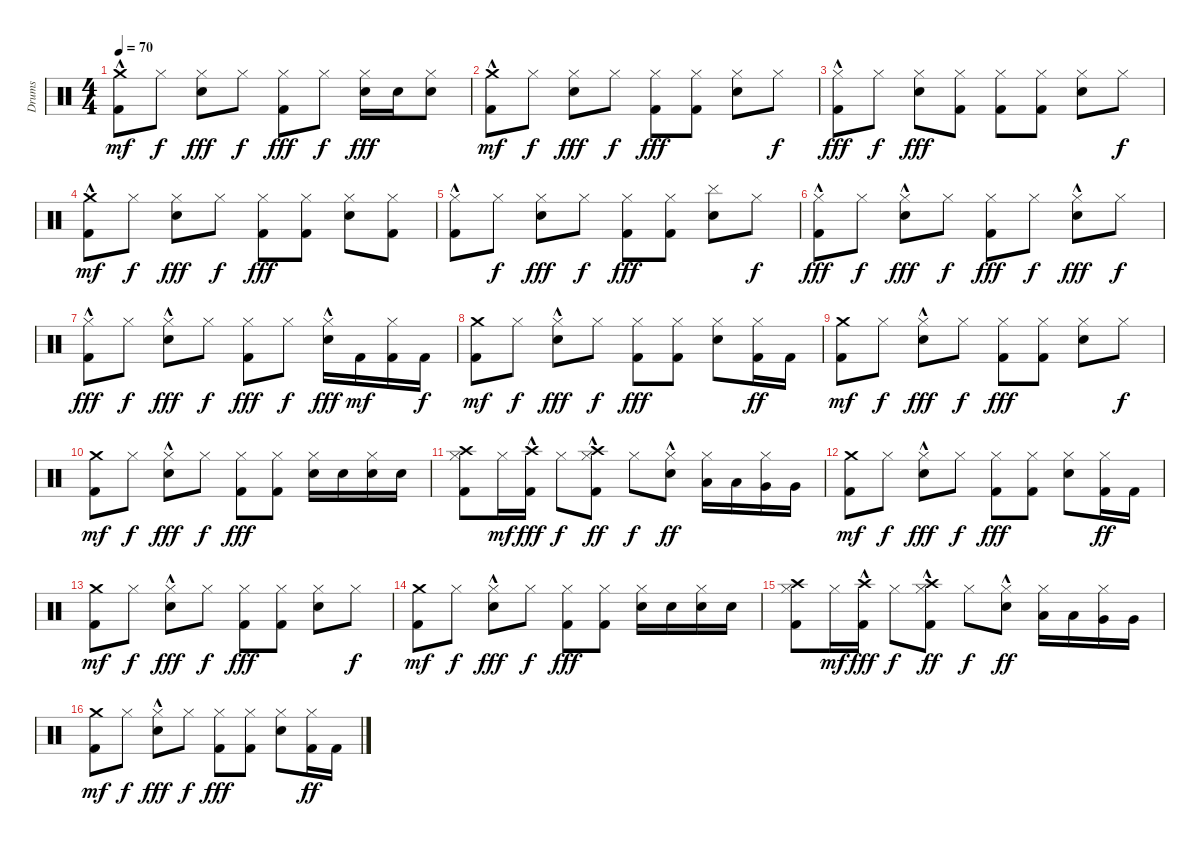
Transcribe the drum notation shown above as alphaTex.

\track ("Drums" "Drums") {instrument percussion}
\staff {score}
\articulation defaults
\ts (4 4)
\tempo 70
\clef neutral
\ks c
("Kick (hit) 2"{hac} "Crash medium (hit)").8{dy mf} "Hi-Hat (closed)".8{dy f} ("Snare (hit) 2" "Hi-Hat (closed)").8{dy fff} "Hi-Hat (closed)".8{dy f} ("Kick (hit) 2" "Hi-Hat (closed)").8{dy fff} "Hi-Hat (closed)".8{dy f} ("Snare (hit) 2" "Hi-Hat (closed)").16{dy fff} "Snare (hit) 2".16 ("Snare (hit) 2" "Hi-Hat (closed)").8 |
("Kick (hit) 2"{hac} "Crash medium (hit)").8{dy mf} "Hi-Hat (closed)".8{dy f} ("Snare (hit) 2" "Hi-Hat (closed)").8{dy fff} "Hi-Hat (closed)".8{dy f} ("Kick (hit) 2" "Hi-Hat (closed)").8{dy fff} ("Kick (hit) 2" "Hi-Hat (closed)").8 ("Snare (hit) 2" "Hi-Hat (closed)").8 "Hi-Hat (closed)".8{dy f} |
("Kick (hit) 2"{hac} "Hi-Hat (closed)").8{dy fff} "Hi-Hat (closed)".8{dy f} ("Snare (hit) 2" "Hi-Hat (closed)").8{dy fff} ("Hi-Hat (closed)" "Kick (hit) 2").8 ("Kick (hit) 2" "Hi-Hat (closed)").8 ("Kick (hit) 2" "Hi-Hat (closed)").8 ("Snare (hit) 2" "Hi-Hat (closed)").8 "Hi-Hat (closed)".8{dy f} |
("Kick (hit) 2"{hac} "Crash medium (hit)").8{dy mf} "Hi-Hat (closed)".8{dy f} ("Snare (hit) 2" "Hi-Hat (closed)").8{dy fff} "Hi-Hat (closed)".8{dy f} ("Kick (hit) 2" "Hi-Hat (closed)").8{dy fff} ("Kick (hit) 2" "Hi-Hat (closed)").8 ("Snare (hit) 2" "Hi-Hat (closed)").8 ("Kick (hit) 2" "Hi-Hat (closed)").8 |
("Kick (hit) 2"{hac} "Hi-Hat (closed)").8 "Hi-Hat (closed)".8{dy f} ("Snare (hit) 2" "Hi-Hat (closed)").8{dy fff} "Hi-Hat (closed)".8{dy f} ("Kick (hit) 2" "Hi-Hat (closed)").8{dy fff} ("Hi-Hat (closed)" "Kick (hit) 2").8 ("Snare (hit) 2" "Cymbal (hit)").8 "Hi-Hat (closed)".8{dy f} |
("Kick (hit) 2"{hac} "Hi-Hat (closed)").8{dy fff} "Hi-Hat (closed)".8{dy f} ("Hi-Hat (closed)" "Snare (hit) 2"{hac}).8{dy fff} "Hi-Hat (closed)".8{dy f} ("Hi-Hat (closed)" "Kick (hit) 2").8{dy fff} "Hi-Hat (closed)".8{dy f} ("Snare (hit) 2"{hac} "Hi-Hat (closed)").8{dy fff} "Hi-Hat (closed)".8{dy f} |
("Kick (hit) 2"{hac} "Hi-Hat (closed)").8{dy fff} "Hi-Hat (closed)".8{dy f} ("Hi-Hat (closed)" "Snare (hit) 2"{hac}).8{dy fff} "Hi-Hat (closed)".8{dy f} ("Hi-Hat (closed)" "Kick (hit) 2").8{dy fff} "Hi-Hat (closed)".8{dy f} ("Snare (hit) 2"{hac} "Hi-Hat (closed)").16{dy fff} "Kick (hit) 2".16{dy mf} ("Kick (hit) 2" "Hi-Hat (closed)").16 "Kick (hit) 2".16{dy f} |
("Kick (hit) 2" "Crash medium (hit)").8{dy mf} "Hi-Hat (closed)".8{dy f} ("Hi-Hat (closed)" "Snare (hit) 2"{hac}).8{dy fff} "Hi-Hat (closed)".8{dy f} ("Kick (hit) 2" "Hi-Hat (closed)").8{dy fff} ("Kick (hit) 2" "Hi-Hat (closed)").8 ("Snare (hit) 2" "Hi-Hat (closed)").8 ("Kick (hit) 2" "Hi-Hat (closed)").16{dy ff} "Kick (hit) 2".16 |
("Kick (hit) 2" "Crash medium (hit)").8{dy mf} "Hi-Hat (closed)".8{dy f} ("Hi-Hat (closed)" "Snare (hit) 2"{hac}).8{dy fff} "Hi-Hat (closed)".8{dy f} ("Kick (hit) 2" "Hi-Hat (closed)").8{dy fff} ("Kick (hit) 2" "Hi-Hat (closed)").8 ("Snare (hit) 2" "Hi-Hat (closed)").8 "Hi-Hat (closed)".8{dy f} |
("Kick (hit) 2" "Crash medium (hit)").8{dy mf} "Hi-Hat (closed)".8{dy f} ("Hi-Hat (closed)" "Snare (hit) 2"{hac}).8{dy fff} "Hi-Hat (closed)".8{dy f} ("Kick (hit) 2" "Hi-Hat (closed)").8{dy fff} ("Kick (hit) 2" "Hi-Hat (closed)").8 ("Snare (hit) 2" "Hi-Hat (closed)").16 "Snare (hit) 2".16 ("Snare (hit) 2" "Hi-Hat (closed)").16 "Snare (hit) 2".16 |
("Kick (hit) 2" "Crash high (hit)" "Hi-Hat (closed)").8 "Hi-Hat (closed)".16{dy mf} ("Kick (hit) 2"{hac} "Crash high (hit)"{hac}).16{dy fff} "Hi-Hat (closed)".8{dy f} ("Kick (hit) 2"{hac} "Crash high (hit)"{hac} "Hi-Hat (closed)").8{dy ff} "Hi-Hat (closed)".8{dy f} ("Snare (hit) 2"{hac} "Hi-Hat (closed)").8{dy ff} ("Low Tom (hit)" "Hi-Hat (closed)").16 "Low Tom (hit)".16 ("Very Low Tom (hit)" "Hi-Hat (closed)").16 "Very Low Tom (hit)".16 |
("Kick (hit) 2" "Crash medium (hit)").8{dy mf} "Hi-Hat (closed)".8{dy f} ("Hi-Hat (closed)" "Snare (hit) 2"{hac}).8{dy fff} "Hi-Hat (closed)".8{dy f} ("Kick (hit) 2" "Hi-Hat (closed)").8{dy fff} ("Kick (hit) 2" "Hi-Hat (closed)").8 ("Snare (hit) 2" "Hi-Hat (closed)").8 ("Kick (hit) 2" "Hi-Hat (closed)").16{dy ff} "Kick (hit) 2".16 |
("Kick (hit) 2" "Crash medium (hit)").8{dy mf} "Hi-Hat (closed)".8{dy f} ("Hi-Hat (closed)" "Snare (hit) 2"{hac}).8{dy fff} "Hi-Hat (closed)".8{dy f} ("Kick (hit) 2" "Hi-Hat (closed)").8{dy fff} ("Kick (hit) 2" "Hi-Hat (closed)").8 ("Snare (hit) 2" "Hi-Hat (closed)").8 "Hi-Hat (closed)".8{dy f} |
("Kick (hit) 2" "Crash medium (hit)").8{dy mf} "Hi-Hat (closed)".8{dy f} ("Hi-Hat (closed)" "Snare (hit) 2"{hac}).8{dy fff} "Hi-Hat (closed)".8{dy f} ("Kick (hit) 2" "Hi-Hat (closed)").8{dy fff} ("Kick (hit) 2" "Hi-Hat (closed)").8 ("Snare (hit) 2" "Hi-Hat (closed)").16 "Snare (hit) 2".16 ("Snare (hit) 2" "Hi-Hat (closed)").16 "Snare (hit) 2".16 |
("Kick (hit) 2" "Crash high (hit)" "Hi-Hat (closed)").8 "Hi-Hat (closed)".16{dy mf} ("Kick (hit) 2"{hac} "Crash high (hit)"{hac}).16{dy fff} "Hi-Hat (closed)".8{dy f} ("Kick (hit) 2"{hac} "Crash high (hit)"{hac} "Hi-Hat (closed)").8{dy ff} "Hi-Hat (closed)".8{dy f} ("Snare (hit) 2"{hac} "Hi-Hat (closed)").8{dy ff} ("Low Tom (hit)" "Hi-Hat (closed)").16 "Low Tom (hit)".16 ("Very Low Tom (hit)" "Hi-Hat (closed)").16 "Very Low Tom (hit)".16 |
("Kick (hit) 2" "Crash medium (hit)").8{dy mf} "Hi-Hat (closed)".8{dy f} ("Hi-Hat (closed)" "Snare (hit) 2"{hac}).8{dy fff} "Hi-Hat (closed)".8{dy f} ("Kick (hit) 2" "Hi-Hat (closed)").8{dy fff} ("Kick (hit) 2" "Hi-Hat (closed)").8 ("Snare (hit) 2" "Hi-Hat (closed)").8 ("Kick (hit) 2" "Hi-Hat (closed)").16{dy ff} "Kick (hit) 2".16
